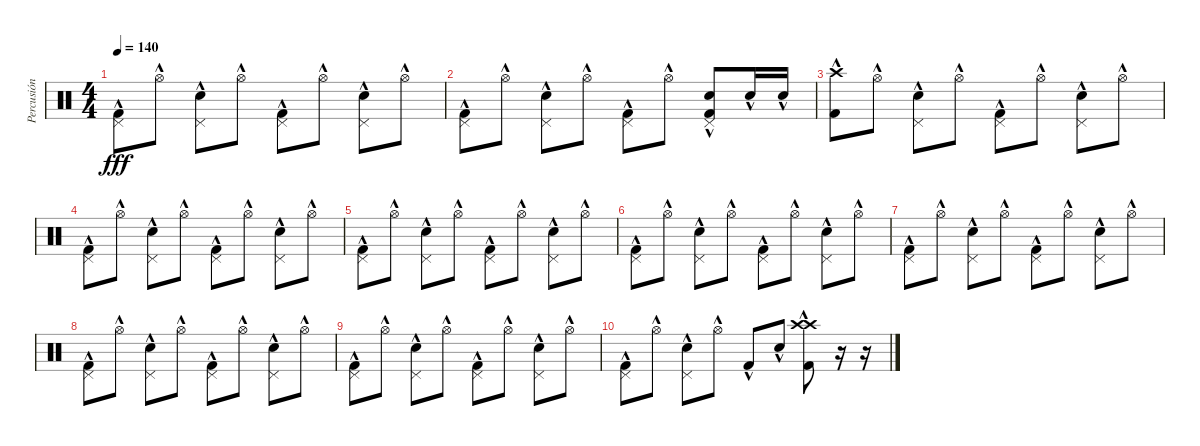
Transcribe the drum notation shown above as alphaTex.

\track ("Percusión" "Percusión") {instrument percussion}
\staff {score}
\articulation defaults
\ts (4 4)
\tempo 140
\clef neutral
\ks c
("Kick (hit) 2"{hac} "Pedal Hi-Hat (hit)"{hac}).8{dy fff} "Hi-Hat (open)"{hac}.8 ("Snare (hit) 2"{hac} "Pedal Hi-Hat (hit)"{hac}).8 "Hi-Hat (open)"{hac}.8 ("Kick (hit) 2"{hac} "Pedal Hi-Hat (hit)"{hac}).8 "Hi-Hat (open)"{hac}.8 ("Snare (hit) 2"{hac} "Pedal Hi-Hat (hit)"{hac}).8 "Hi-Hat (open)"{hac}.8 |
("Kick (hit) 2"{hac} "Pedal Hi-Hat (hit)"{hac}).8 "Hi-Hat (open)"{hac}.8 ("Snare (hit) 2"{hac} "Pedal Hi-Hat (hit)"{hac}).8 "Hi-Hat (open)"{hac}.8 ("Kick (hit) 2"{hac} "Pedal Hi-Hat (hit)"{hac}).8 "Hi-Hat (open)"{hac}.8 ("Snare (hit) 2"{hac} "Kick (hit) 2"{hac} "Pedal Hi-Hat (hit)"{hac}).8 "Snare (hit) 2"{hac}.16 "Snare (hit) 2"{hac}.16 |
("Crash high (hit)"{hac} "Kick (hit) 2"{hac}).8 "Hi-Hat (open)"{hac}.8 ("Snare (hit) 2"{hac} "Pedal Hi-Hat (hit)"{hac}).8 "Hi-Hat (open)"{hac}.8 ("Kick (hit) 2"{hac} "Pedal Hi-Hat (hit)"{hac}).8 "Hi-Hat (open)"{hac}.8 ("Snare (hit) 2"{hac} "Pedal Hi-Hat (hit)"{hac}).8 "Hi-Hat (open)"{hac}.8 |
("Kick (hit) 2"{hac} "Pedal Hi-Hat (hit)"{hac}).8 "Hi-Hat (open)"{hac}.8 ("Snare (hit) 2"{hac} "Pedal Hi-Hat (hit)"{hac}).8 "Hi-Hat (open)"{hac}.8 ("Kick (hit) 2"{hac} "Pedal Hi-Hat (hit)"{hac}).8 "Hi-Hat (open)"{hac}.8 ("Snare (hit) 2"{hac} "Pedal Hi-Hat (hit)"{hac}).8 "Hi-Hat (open)"{hac}.8 |
("Kick (hit) 2"{hac} "Pedal Hi-Hat (hit)"{hac}).8 "Hi-Hat (open)"{hac}.8 ("Snare (hit) 2"{hac} "Pedal Hi-Hat (hit)"{hac}).8 "Hi-Hat (open)"{hac}.8 ("Kick (hit) 2"{hac} "Pedal Hi-Hat (hit)"{hac}).8 "Hi-Hat (open)"{hac}.8 ("Snare (hit) 2"{hac} "Pedal Hi-Hat (hit)"{hac}).8 "Hi-Hat (open)"{hac}.8 |
("Kick (hit) 2"{hac} "Pedal Hi-Hat (hit)"{hac}).8 "Hi-Hat (open)"{hac}.8 ("Snare (hit) 2"{hac} "Pedal Hi-Hat (hit)"{hac}).8 "Hi-Hat (open)"{hac}.8 ("Kick (hit) 2"{hac} "Pedal Hi-Hat (hit)"{hac}).8 "Hi-Hat (open)"{hac}.8 ("Snare (hit) 2"{hac} "Pedal Hi-Hat (hit)"{hac}).8 "Hi-Hat (open)"{hac}.8 |
("Kick (hit) 2"{hac} "Pedal Hi-Hat (hit)"{hac}).8 "Hi-Hat (open)"{hac}.8 ("Snare (hit) 2"{hac} "Pedal Hi-Hat (hit)"{hac}).8 "Hi-Hat (open)"{hac}.8 ("Kick (hit) 2"{hac} "Pedal Hi-Hat (hit)"{hac}).8 "Hi-Hat (open)"{hac}.8 ("Snare (hit) 2"{hac} "Pedal Hi-Hat (hit)"{hac}).8 "Hi-Hat (open)"{hac}.8 |
("Kick (hit) 2"{hac} "Pedal Hi-Hat (hit)"{hac}).8 "Hi-Hat (open)"{hac}.8 ("Snare (hit) 2"{hac} "Pedal Hi-Hat (hit)"{hac}).8 "Hi-Hat (open)"{hac}.8 ("Kick (hit) 2"{hac} "Pedal Hi-Hat (hit)"{hac}).8 "Hi-Hat (open)"{hac}.8 ("Snare (hit) 2"{hac} "Pedal Hi-Hat (hit)"{hac}).8 "Hi-Hat (open)"{hac}.8 |
("Kick (hit) 2"{hac} "Pedal Hi-Hat (hit)"{hac}).8 "Hi-Hat (open)"{hac}.8 ("Snare (hit) 2"{hac} "Pedal Hi-Hat (hit)"{hac}).8 "Hi-Hat (open)"{hac}.8 ("Kick (hit) 2"{hac} "Pedal Hi-Hat (hit)"{hac}).8 "Hi-Hat (open)"{hac}.8 ("Snare (hit) 2"{hac} "Pedal Hi-Hat (hit)"{hac}).8 "Hi-Hat (open)"{hac}.8 |
("Kick (hit) 2"{hac} "Pedal Hi-Hat (hit)"{hac}).8 "Hi-Hat (open)"{hac}.8 ("Snare (hit) 2"{hac} "Pedal Hi-Hat (hit)"{hac}).8 "Hi-Hat (open)"{hac}.8 "Kick (hit) 2"{hac}.8 "Snare (hit) 2"{hac}.8 ("Crash high (hit)"{hac} "Kick (hit) 2"{hac} "Crash high (hit)"{hac}).8 r.16 r.16
